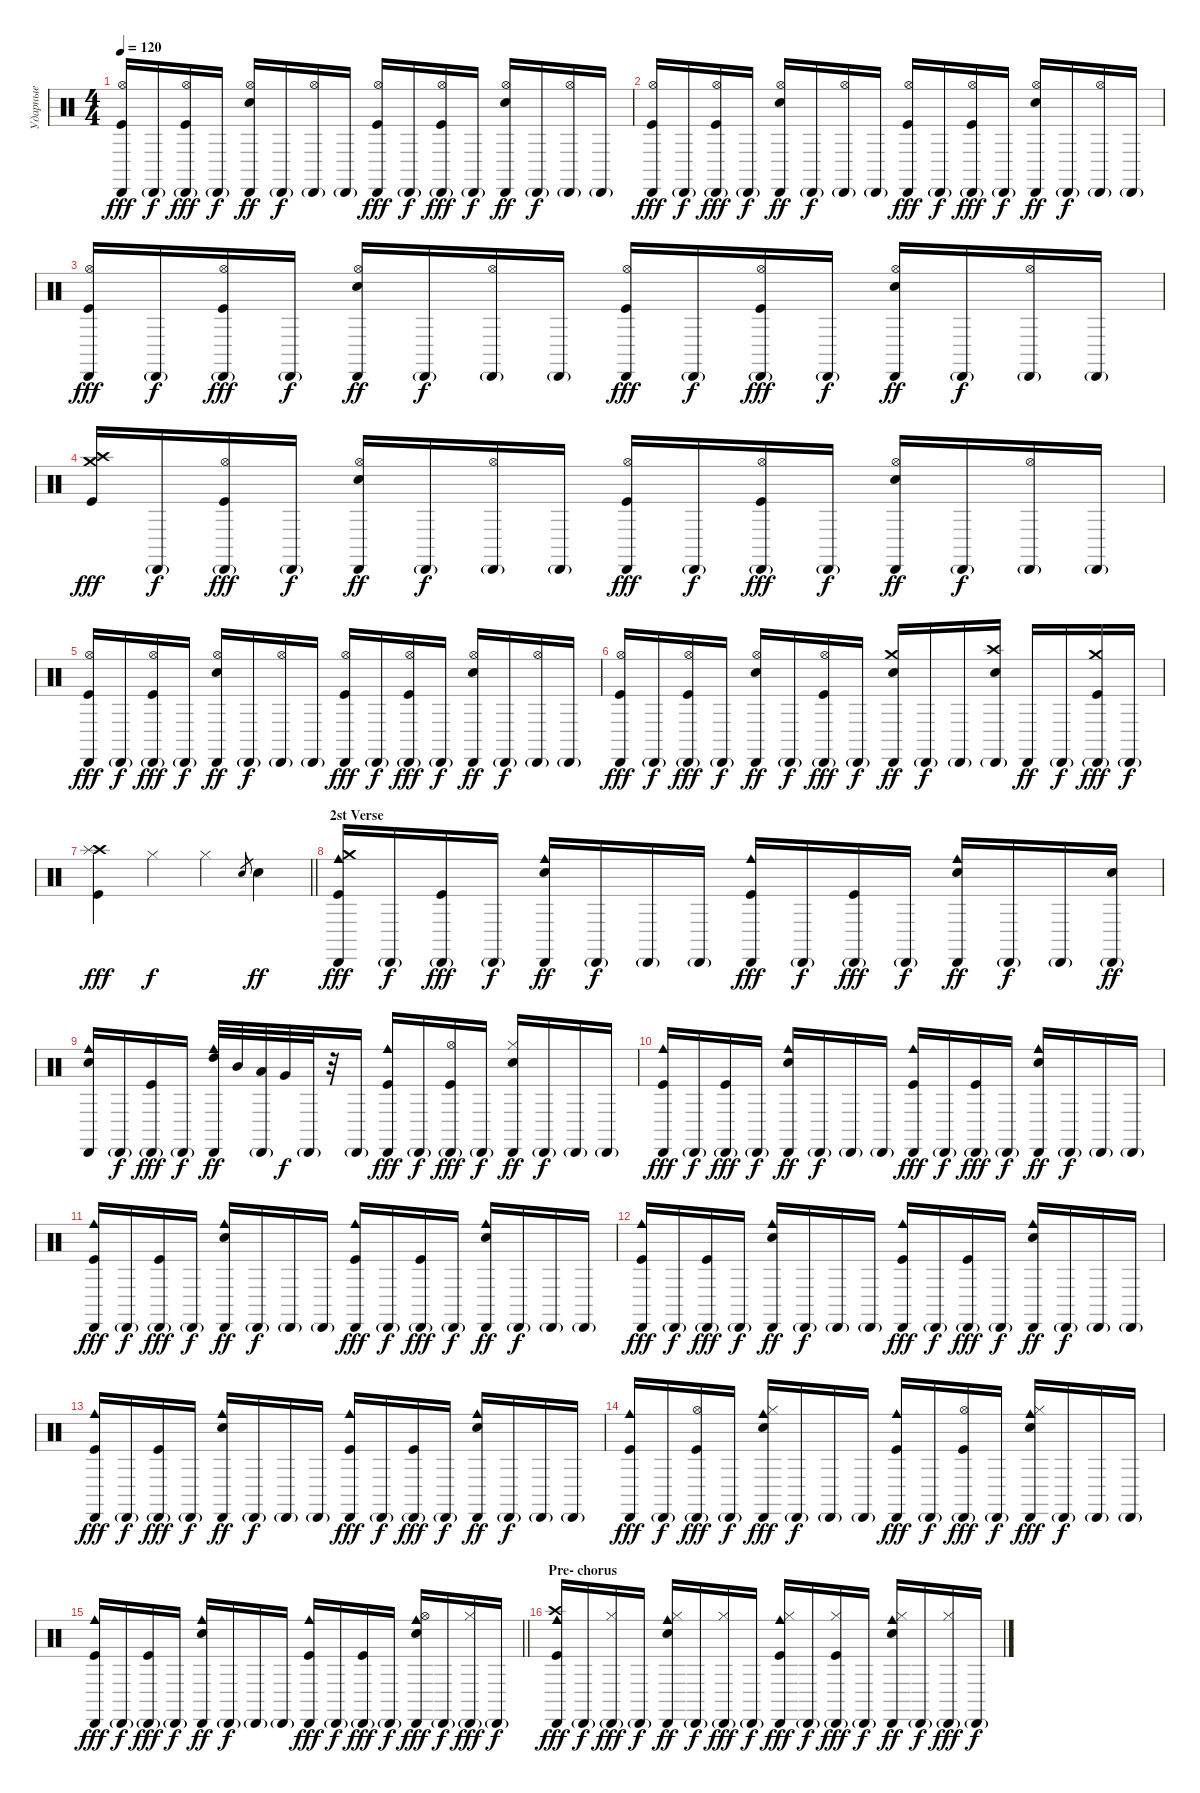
\track ("Ударные" "Ударные") {instrument percussion}
\staff {score}
\articulation defaults
\ts (4 4)
\tempo 120
\clef neutral
\ks c
("Hi-Hat (open)" "Cabasa (hit)" "Kick (hit)").16{dy fff} "Cabasa (hit)"{g}.16{dy f} ("Hi-Hat (open)" "Cabasa (hit)"{g} "Kick (hit)").16{dy fff} "Cabasa (hit)"{g}.16{dy f} ("Hi-Hat (open)" "Cabasa (hit)" "Snare (hit) 2").16{dy ff} "Cabasa (hit)"{g}.16{dy f} ("Hi-Hat (open)" "Cabasa (hit)"{g}).16 "Cabasa (hit)"{g}.16 ("Hi-Hat (open)" "Cabasa (hit)" "Kick (hit)").16{dy fff} "Cabasa (hit)"{g}.16{dy f} ("Hi-Hat (open)" "Cabasa (hit)"{g} "Kick (hit)").16{dy fff} "Cabasa (hit)"{g}.16{dy f} ("Hi-Hat (open)" "Cabasa (hit)" "Snare (hit) 2").16{dy ff} "Cabasa (hit)"{g}.16{dy f} ("Hi-Hat (open)" "Cabasa (hit)"{g}).16 "Cabasa (hit)"{g}.16 |
("Hi-Hat (open)" "Cabasa (hit)" "Kick (hit)").16{dy fff} "Cabasa (hit)"{g}.16{dy f} ("Hi-Hat (open)" "Cabasa (hit)"{g} "Kick (hit)").16{dy fff} "Cabasa (hit)"{g}.16{dy f} ("Hi-Hat (open)" "Cabasa (hit)" "Snare (hit) 2").16{dy ff} "Cabasa (hit)"{g}.16{dy f} ("Hi-Hat (open)" "Cabasa (hit)"{g}).16 "Cabasa (hit)"{g}.16 ("Hi-Hat (open)" "Cabasa (hit)" "Kick (hit)").16{dy fff} "Cabasa (hit)"{g}.16{dy f} ("Hi-Hat (open)" "Cabasa (hit)"{g} "Kick (hit)").16{dy fff} "Cabasa (hit)"{g}.16{dy f} ("Hi-Hat (open)" "Cabasa (hit)" "Snare (hit) 2").16{dy ff} "Cabasa (hit)"{g}.16{dy f} ("Hi-Hat (open)" "Cabasa (hit)"{g}).16 "Cabasa (hit)"{g}.16 |
("Hi-Hat (open)" "Cabasa (hit)" "Kick (hit)").16{dy fff} "Cabasa (hit)"{g}.16{dy f} ("Hi-Hat (open)" "Cabasa (hit)"{g} "Kick (hit)").16{dy fff} "Cabasa (hit)"{g}.16{dy f} ("Hi-Hat (open)" "Cabasa (hit)" "Snare (hit) 2").16{dy ff} "Cabasa (hit)"{g}.16{dy f} ("Hi-Hat (open)" "Cabasa (hit)"{g}).16 "Cabasa (hit)"{g}.16 ("Hi-Hat (open)" "Cabasa (hit)" "Kick (hit)").16{dy fff} "Cabasa (hit)"{g}.16{dy f} ("Hi-Hat (open)" "Cabasa (hit)"{g} "Kick (hit)").16{dy fff} "Cabasa (hit)"{g}.16{dy f} ("Hi-Hat (open)" "Cabasa (hit)" "Snare (hit) 2").16{dy ff} "Cabasa (hit)"{g}.16{dy f} ("Hi-Hat (open)" "Cabasa (hit)"{g}).16 "Cabasa (hit)"{g}.16 |
("Crash medium (hit)" "Crash high (hit)" "Kick (hit)").16{dy fff} "Cabasa (hit)"{g}.16{dy f} ("Hi-Hat (open)" "Cabasa (hit)"{g} "Kick (hit)").16{dy fff} "Cabasa (hit)"{g}.16{dy f} ("Hi-Hat (open)" "Cabasa (hit)" "Snare (hit) 2").16{dy ff} "Cabasa (hit)"{g}.16{dy f} ("Hi-Hat (open)" "Cabasa (hit)"{g}).16 "Cabasa (hit)"{g}.16 ("Hi-Hat (open)" "Cabasa (hit)" "Kick (hit)").16{dy fff} "Cabasa (hit)"{g}.16{dy f} ("Hi-Hat (open)" "Cabasa (hit)"{g} "Kick (hit)").16{dy fff} "Cabasa (hit)"{g}.16{dy f} ("Hi-Hat (open)" "Cabasa (hit)" "Snare (hit) 2").16{dy ff} "Cabasa (hit)"{g}.16{dy f} ("Hi-Hat (open)" "Cabasa (hit)"{g}).16 "Cabasa (hit)"{g}.16 |
("Hi-Hat (open)" "Cabasa (hit)" "Kick (hit)").16{dy fff} "Cabasa (hit)"{g}.16{dy f} ("Hi-Hat (open)" "Cabasa (hit)"{g} "Kick (hit)").16{dy fff} "Cabasa (hit)"{g}.16{dy f} ("Hi-Hat (open)" "Cabasa (hit)" "Snare (hit) 2").16{dy ff} "Cabasa (hit)"{g}.16{dy f} ("Hi-Hat (open)" "Cabasa (hit)"{g}).16 "Cabasa (hit)"{g}.16 ("Hi-Hat (open)" "Cabasa (hit)" "Kick (hit)").16{dy fff} "Cabasa (hit)"{g}.16{dy f} ("Hi-Hat (open)" "Cabasa (hit)"{g} "Kick (hit)").16{dy fff} "Cabasa (hit)"{g}.16{dy f} ("Hi-Hat (open)" "Cabasa (hit)" "Snare (hit) 2").16{dy ff} "Cabasa (hit)"{g}.16{dy f} ("Hi-Hat (open)" "Cabasa (hit)"{g}).16 "Cabasa (hit)"{g}.16 |
("Hi-Hat (open)" "Cabasa (hit)" "Kick (hit)").16{dy fff} "Cabasa (hit)"{g}.16{dy f} ("Hi-Hat (open)" "Cabasa (hit)"{g} "Kick (hit)").16{dy fff} "Cabasa (hit)"{g}.16{dy f} ("Hi-Hat (open)" "Cabasa (hit)" "Snare (hit) 2").16{dy ff} "Cabasa (hit)"{g}.16{dy f} ("Hi-Hat (open)" "Cabasa (hit)"{g} "Kick (hit)").16{dy fff} "Cabasa (hit)"{g}.16{dy f} ("Crash medium (hit)" "Cabasa (hit)" "Snare (hit) 2").16{dy ff} "Cabasa (hit)"{g}.16{dy f} "Cabasa (hit)"{g}.16 ("Crash high (hit)" "Cabasa (hit)"{g} "Snare (hit) 2").16 "Cabasa (hit)".16{dy ff} "Cabasa (hit)"{g}.16{dy f} ("Crash medium (hit)" "Cabasa (hit)"{g} "Kick (hit)").16{dy fff} "Cabasa (hit)"{g}.16{dy f} |
\barLineRight lightlight
("Crash high (hit)" "Splash (hit)" "Kick (hit)").4{dy fff} "Hi-Hat (closed)".4{dy f} "Hi-Hat (closed)".4 "Snare (hit) 2".8{gr} "Snare (hit) 2".4{dy ff} |
\section ("" "2st Verse")
("Cowbell medium (hit)" "Crash medium (hit)" "Cabasa (hit)" "Kick (hit)").16{dy fff} "Cabasa (hit)"{g}.16{dy f} ("Cabasa (hit)"{g} "Kick (hit)").16{dy fff} "Cabasa (hit)"{g}.16{dy f} ("Cowbell medium (hit)" "Cabasa (hit)" "Snare (hit) 2").16{dy ff} "Cabasa (hit)"{g}.16{dy f} "Cabasa (hit)"{g}.16 "Cabasa (hit)"{g}.16 ("Cowbell medium (hit)" "Cabasa (hit)" "Kick (hit)").16{dy fff} "Cabasa (hit)"{g}.16{dy f} ("Cabasa (hit)"{g} "Kick (hit)").16{dy fff} "Cabasa (hit)"{g}.16{dy f} ("Cowbell medium (hit)" "Cabasa (hit)" "Snare (hit) 2").16{dy ff} "Cabasa (hit)"{g}.16{dy f} "Cabasa (hit)"{g}.16 ("Cabasa (hit)"{g} "Snare (hit) 2").16{dy ff} |
("Cowbell medium (hit)" "Cabasa (hit)" "Snare (hit) 2").16 "Cabasa (hit)"{g}.16{dy f} ("Cabasa (hit)"{g} "Kick (hit)").16{dy fff} "Cabasa (hit)"{g}.16{dy f} ("Cowbell medium (hit)" "Cabasa (hit)" "High Tom (hit)").32{dy ff} "Mid Tom (hit)".32 ("Cabasa (hit)"{g} "Low Tom (hit)").32 "Very Low Tom (hit)".32{dy f} "Cabasa (hit)"{g}.32 r.32 "Cabasa (hit)"{g}.16 ("Cowbell medium (hit)" "Cabasa (hit)" "Kick (hit)").16{dy fff} "Cabasa (hit)"{g}.16{dy f} ("Hi-Hat (open)" "Cabasa (hit)"{g} "Kick (hit)").16{dy fff} "Cabasa (hit)"{g}.16{dy f} ("Hi-Hat (closed)" "Cabasa (hit)" "Snare (hit) 2").16{dy ff} "Cabasa (hit)"{g}.16{dy f} "Cabasa (hit)"{g}.16 "Cabasa (hit)"{g}.16 |
("Cowbell medium (hit)" "Cabasa (hit)" "Kick (hit)").16{dy fff} "Cabasa (hit)"{g}.16{dy f} ("Cabasa (hit)"{g} "Kick (hit)").16{dy fff} "Cabasa (hit)"{g}.16{dy f} ("Cowbell medium (hit)" "Cabasa (hit)" "Snare (hit) 2").16{dy ff} "Cabasa (hit)"{g}.16{dy f} "Cabasa (hit)"{g}.16 "Cabasa (hit)"{g}.16 ("Cowbell medium (hit)" "Cabasa (hit)" "Kick (hit)").16{dy fff} "Cabasa (hit)"{g}.16{dy f} ("Cabasa (hit)"{g} "Kick (hit)").16{dy fff} "Cabasa (hit)"{g}.16{dy f} ("Cowbell medium (hit)" "Cabasa (hit)" "Snare (hit) 2").16{dy ff} "Cabasa (hit)"{g}.16{dy f} "Cabasa (hit)"{g}.16 "Cabasa (hit)"{g}.16 |
("Cowbell medium (hit)" "Cabasa (hit)" "Kick (hit)").16{dy fff} "Cabasa (hit)"{g}.16{dy f} ("Cabasa (hit)"{g} "Kick (hit)").16{dy fff} "Cabasa (hit)"{g}.16{dy f} ("Cowbell medium (hit)" "Cabasa (hit)" "Snare (hit) 2").16{dy ff} "Cabasa (hit)"{g}.16{dy f} "Cabasa (hit)"{g}.16 "Cabasa (hit)"{g}.16 ("Cowbell medium (hit)" "Cabasa (hit)" "Kick (hit)").16{dy fff} "Cabasa (hit)"{g}.16{dy f} ("Cabasa (hit)"{g} "Kick (hit)").16{dy fff} "Cabasa (hit)"{g}.16{dy f} ("Cowbell medium (hit)" "Cabasa (hit)" "Snare (hit) 2").16{dy ff} "Cabasa (hit)"{g}.16{dy f} "Cabasa (hit)"{g}.16 "Cabasa (hit)"{g}.16 |
("Cowbell medium (hit)" "Cabasa (hit)" "Kick (hit)").16{dy fff} "Cabasa (hit)"{g}.16{dy f} ("Cabasa (hit)"{g} "Kick (hit)").16{dy fff} "Cabasa (hit)"{g}.16{dy f} ("Cowbell medium (hit)" "Cabasa (hit)" "Snare (hit) 2").16{dy ff} "Cabasa (hit)"{g}.16{dy f} "Cabasa (hit)"{g}.16 "Cabasa (hit)"{g}.16 ("Cowbell medium (hit)" "Cabasa (hit)" "Kick (hit)").16{dy fff} "Cabasa (hit)"{g}.16{dy f} ("Cabasa (hit)"{g} "Kick (hit)").16{dy fff} "Cabasa (hit)"{g}.16{dy f} ("Cowbell medium (hit)" "Cabasa (hit)" "Snare (hit) 2").16{dy ff} "Cabasa (hit)"{g}.16{dy f} "Cabasa (hit)"{g}.16 "Cabasa (hit)"{g}.16 |
("Cowbell medium (hit)" "Cabasa (hit)" "Kick (hit)").16{dy fff} "Cabasa (hit)"{g}.16{dy f} ("Cabasa (hit)"{g} "Kick (hit)").16{dy fff} "Cabasa (hit)"{g}.16{dy f} ("Cowbell medium (hit)" "Cabasa (hit)" "Snare (hit) 2").16{dy ff} "Cabasa (hit)"{g}.16{dy f} "Cabasa (hit)"{g}.16 "Cabasa (hit)"{g}.16 ("Cowbell medium (hit)" "Cabasa (hit)" "Kick (hit)").16{dy fff} "Cabasa (hit)"{g}.16{dy f} ("Cabasa (hit)"{g} "Kick (hit)").16{dy fff} "Cabasa (hit)"{g}.16{dy f} ("Cowbell medium (hit)" "Cabasa (hit)" "Snare (hit) 2").16{dy ff} "Cabasa (hit)"{g}.16{dy f} "Cabasa (hit)"{g}.16 "Cabasa (hit)"{g}.16 |
("Cowbell medium (hit)" "Cabasa (hit)" "Kick (hit)").16{dy fff} "Cabasa (hit)"{g}.16{dy f} ("Cabasa (hit)"{g} "Hi-Hat (open)" "Kick (hit)").16{dy fff} "Cabasa (hit)"{g}.16{dy f} ("Cowbell medium (hit)" "Cabasa (hit)" "Hi-Hat (closed)" "Snare (hit) 2").16{dy fff} "Cabasa (hit)"{g}.16{dy f} "Cabasa (hit)"{g}.16 "Cabasa (hit)"{g}.16 ("Cowbell medium (hit)" "Cabasa (hit)" "Kick (hit)").16{dy fff} "Cabasa (hit)"{g}.16{dy f} ("Cabasa (hit)"{g} "Hi-Hat (open)" "Kick (hit)").16{dy fff} "Cabasa (hit)"{g}.16{dy f} ("Cowbell medium (hit)" "Cabasa (hit)" "Hi-Hat (closed)" "Snare (hit) 2").16{dy fff} "Cabasa (hit)"{g}.16{dy f} "Cabasa (hit)"{g}.16 "Cabasa (hit)"{g}.16 |
\barLineRight lightlight
("Cowbell medium (hit)" "Cabasa (hit)" "Kick (hit)").16{dy fff} "Cabasa (hit)"{g}.16{dy f} ("Cabasa (hit)"{g} "Kick (hit)").16{dy fff} "Cabasa (hit)"{g}.16{dy f} ("Cowbell medium (hit)" "Cabasa (hit)" "Snare (hit) 2").16{dy ff} "Cabasa (hit)"{g}.16{dy f} "Cabasa (hit)"{g}.16 "Cabasa (hit)"{g}.16 ("Cowbell medium (hit)" "Cabasa (hit)" "Kick (hit)").16{dy fff} "Cabasa (hit)"{g}.16{dy f} ("Cabasa (hit)"{g} "Kick (hit)").16{dy fff} "Cabasa (hit)"{g}.16{dy f} ("Cowbell medium (hit)" "Cabasa (hit)" "Hi-Hat (open)" "Snare (hit) 2").16{dy fff} "Cabasa (hit)"{g}.16{dy f} ("Cabasa (hit)"{g} "Hi-Hat (closed)").16{dy fff} "Cabasa (hit)"{g}.16{dy f} |
\section ("" "Pre- chorus")
("Crash high (hit)" "Cabasa (hit)" "Cowbell medium (hit)" "Kick (hit)").16{dy fff} "Cabasa (hit)"{g}.16{dy f} ("Hi-Hat (closed)" "Cabasa (hit)"{g}).16{dy fff} "Cabasa (hit)"{g}.16{dy f} ("Hi-Hat (closed)" "Cabasa (hit)" "Cowbell medium (hit)" "Snare (hit) 2").16{dy ff} "Cabasa (hit)"{g}.16{dy f} ("Hi-Hat (closed)" "Cabasa (hit)"{g}).16{dy fff} "Cabasa (hit)"{g}.16{dy f} ("Hi-Hat (closed)" "Cabasa (hit)" "Cowbell medium (hit)" "Kick (hit)").16{dy fff} "Cabasa (hit)"{g}.16{dy f} ("Hi-Hat (closed)" "Cabasa (hit)"{g} "Kick (hit)").16{dy fff} "Cabasa (hit)"{g}.16{dy f} ("Hi-Hat (closed)" "Cabasa (hit)" "Cowbell medium (hit)" "Snare (hit) 2").16{dy ff} "Cabasa (hit)"{g}.16{dy f} ("Hi-Hat (closed)" "Cabasa (hit)"{g}).16{dy fff} "Cabasa (hit)"{g}.16{dy f}
